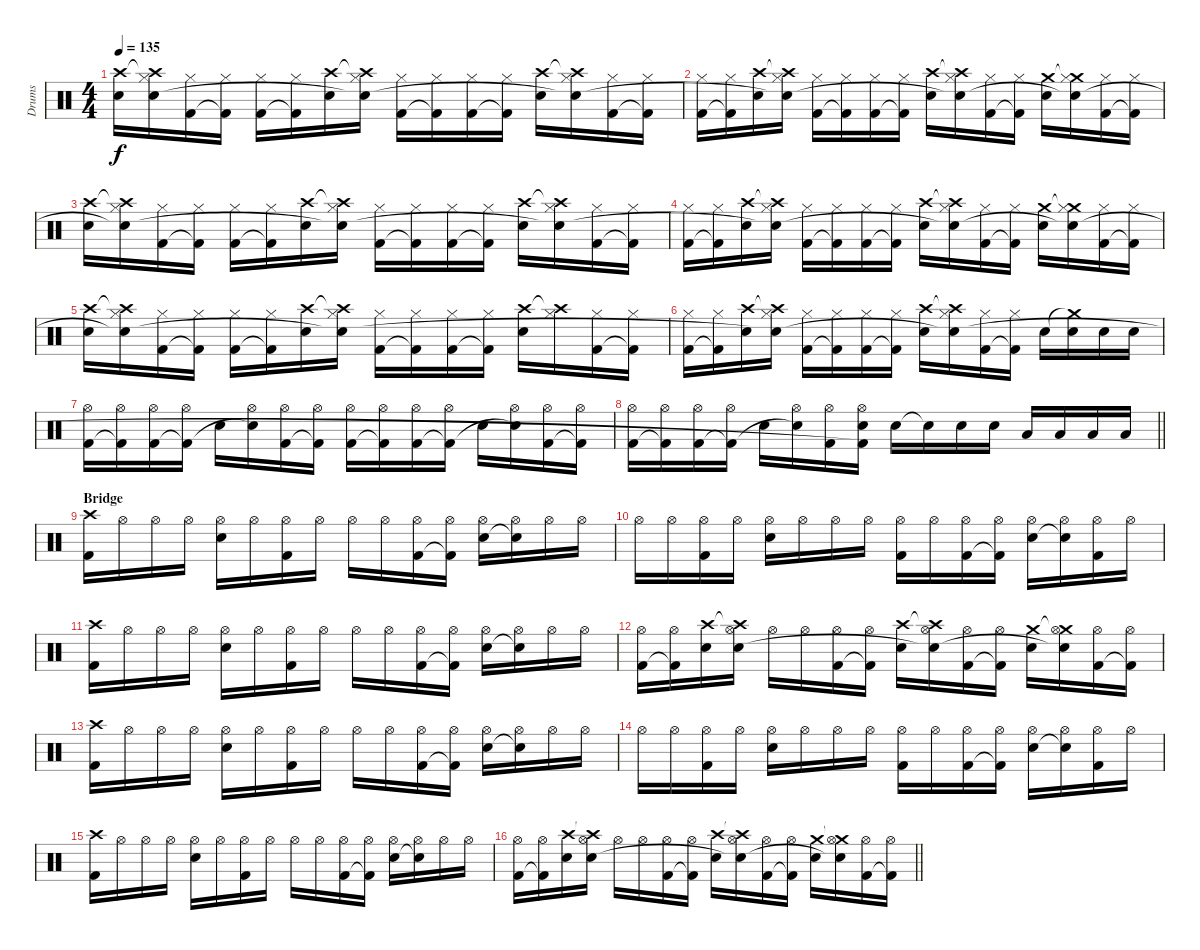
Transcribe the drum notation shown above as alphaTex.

\track ("Drums" "Drums") {instrument percussion}
\staff {score}
\articulation defaults
\ts (4 4)
\tempo 135
\clef neutral
\ks c
("Crash high (hit)" "Snare (hit) 2").16{dy f} ("Crash high (hit)"{t} "Hi-Hat (closed)" "Snare (hit) 2"{t}).16 ("Hi-Hat (closed)" "Kick (hit) 2").16 ("Hi-Hat (closed)" "Kick (hit) 2"{t}).16 ("Hi-Hat (closed)" "Kick (hit) 2").16 ("Hi-Hat (closed)" "Kick (hit) 2"{t}).16 ("Crash high (hit)" "Snare (hit) 2").16 ("Crash high (hit)"{t} "Hi-Hat (closed)" "Snare (hit) 2"{t}).16 ("Hi-Hat (closed)" "Kick (hit) 2").16 ("Hi-Hat (closed)" "Kick (hit) 2"{t}).16 ("Hi-Hat (closed)" "Kick (hit) 2").16 ("Hi-Hat (closed)" "Kick (hit) 2"{t}).16 ("Crash high (hit)" "Snare (hit) 2").16 ("Crash high (hit)"{t} "Hi-Hat (closed)" "Snare (hit) 2"{t}).16 ("Hi-Hat (closed)" "Kick (hit) 2").16 ("Hi-Hat (closed)" "Kick (hit) 2"{t}).16 |
("Hi-Hat (closed)" "Kick (hit) 2").16 ("Hi-Hat (closed)" "Kick (hit) 2"{t}).16 ("Crash high (hit)" "Snare (hit) 2").16 ("Crash high (hit)"{t} "Hi-Hat (closed)" "Snare (hit) 2"{t}).16 ("Hi-Hat (closed)" "Kick (hit) 2").16 ("Hi-Hat (closed)" "Kick (hit) 2"{t}).16 ("Hi-Hat (closed)" "Kick (hit) 2").16 ("Hi-Hat (closed)" "Kick (hit) 2"{t}).16 ("Crash high (hit)" "Snare (hit) 2").16 ("Crash high (hit)"{t} "Hi-Hat (closed)" "Snare (hit) 2"{t}).16 ("Hi-Hat (closed)" "Kick (hit) 2").16 ("Hi-Hat (closed)" "Kick (hit) 2"{t}).16 ("Crash medium (hit)" "Snare (hit) 2").16 ("Crash medium (hit)"{t} "Hi-Hat (closed)" "Snare (hit) 2"{t}).16 ("Hi-Hat (closed)" "Kick (hit) 2").16 ("Hi-Hat (closed)" "Kick (hit) 2"{t}).16 |
("Crash high (hit)" "Snare (hit) 2").16 ("Crash high (hit)"{t} "Hi-Hat (closed)" "Snare (hit) 2"{t}).16 ("Hi-Hat (closed)" "Kick (hit) 2").16 ("Hi-Hat (closed)" "Kick (hit) 2"{t}).16 ("Hi-Hat (closed)" "Kick (hit) 2").16 ("Hi-Hat (closed)" "Kick (hit) 2"{t}).16 ("Crash high (hit)" "Snare (hit) 2").16 ("Crash high (hit)"{t} "Hi-Hat (closed)" "Snare (hit) 2"{t}).16 ("Hi-Hat (closed)" "Kick (hit) 2").16 ("Hi-Hat (closed)" "Kick (hit) 2"{t}).16 ("Hi-Hat (closed)" "Kick (hit) 2").16 ("Hi-Hat (closed)" "Kick (hit) 2"{t}).16 ("Crash high (hit)" "Snare (hit) 2").16 ("Crash high (hit)"{t} "Hi-Hat (closed)" "Snare (hit) 2"{t}).16 ("Hi-Hat (closed)" "Kick (hit) 2").16 ("Hi-Hat (closed)" "Kick (hit) 2"{t}).16 |
("Hi-Hat (closed)" "Kick (hit) 2").16 ("Hi-Hat (closed)" "Kick (hit) 2"{t}).16 ("Crash high (hit)" "Snare (hit) 2").16 ("Crash high (hit)"{t} "Hi-Hat (closed)" "Snare (hit) 2"{t}).16 ("Hi-Hat (closed)" "Kick (hit) 2").16 ("Hi-Hat (closed)" "Kick (hit) 2"{t}).16 ("Hi-Hat (closed)" "Kick (hit) 2").16 ("Hi-Hat (closed)" "Kick (hit) 2"{t}).16 ("Crash high (hit)" "Snare (hit) 2").16 ("Crash high (hit)"{t} "Hi-Hat (closed)" "Snare (hit) 2"{t}).16 ("Hi-Hat (closed)" "Kick (hit) 2").16 ("Hi-Hat (closed)" "Kick (hit) 2"{t}).16 ("Crash medium (hit)" "Snare (hit) 2").16 ("Crash medium (hit)"{t} "Hi-Hat (closed)" "Snare (hit) 2"{t}).16 ("Hi-Hat (closed)" "Kick (hit) 2").16 ("Hi-Hat (closed)" "Kick (hit) 2"{t}).16 |
("Crash high (hit)" "Snare (hit) 2").16 ("Crash high (hit)"{t} "Hi-Hat (closed)" "Snare (hit) 2"{t}).16 ("Hi-Hat (closed)" "Kick (hit) 2").16 ("Hi-Hat (closed)" "Kick (hit) 2"{t}).16 ("Hi-Hat (closed)" "Kick (hit) 2").16 ("Hi-Hat (closed)" "Kick (hit) 2"{t}).16 ("Crash high (hit)" "Snare (hit) 2").16 ("Crash high (hit)"{t} "Hi-Hat (closed)" "Snare (hit) 2"{t}).16 ("Hi-Hat (closed)" "Kick (hit) 2").16 ("Hi-Hat (closed)" "Kick (hit) 2"{t}).16 ("Hi-Hat (closed)" "Kick (hit) 2").16 ("Hi-Hat (closed)" "Kick (hit) 2"{t}).16 ("Crash high (hit)" "Snare (hit) 2").16 ("Crash high (hit)"{t} "Hi-Hat (closed)").16 ("Hi-Hat (closed)" "Kick (hit) 2").16 ("Hi-Hat (closed)" "Kick (hit) 2"{t}).16 |
("Hi-Hat (closed)" "Kick (hit) 2").16 ("Hi-Hat (closed)" "Kick (hit) 2"{t}).16 ("Crash high (hit)" "Snare (hit) 2").16 ("Crash high (hit)"{t} "Hi-Hat (closed)" "Snare (hit) 2"{t}).16 ("Hi-Hat (closed)" "Kick (hit) 2").16 ("Hi-Hat (closed)" "Kick (hit) 2"{t}).16 ("Hi-Hat (closed)" "Kick (hit) 2").16 ("Hi-Hat (closed)" "Kick (hit) 2"{t}).16 ("Crash high (hit)" "Snare (hit) 2").16 ("Crash high (hit)"{t} "Hi-Hat (closed)" "Snare (hit) 2"{t}).16 ("Hi-Hat (closed)" "Kick (hit) 2").16 ("Hi-Hat (closed)" "Kick (hit) 2"{t}).16 "Snare (hit) 2".16 ("Crash medium (hit)"{t} "Snare (hit) 2").16 "Snare (hit) 2".16 "Snare (hit) 2".16 |
("Hi-Hat (open)" "Kick (hit) 2").16 ("Hi-Hat (open)" "Kick (hit) 2"{t}).16 ("Hi-Hat (open)" "Kick (hit) 2").16 ("Hi-Hat (open)" "Kick (hit) 2"{t}).16 "Snare (hit) 2".16 ("Hi-Hat (open)" "Snare (hit) 2"{t}).16 ("Hi-Hat (open)" "Kick (hit) 2").16 ("Hi-Hat (open)" "Kick (hit) 2"{t}).16 ("Hi-Hat (open)" "Kick (hit) 2").16 ("Hi-Hat (open)" "Kick (hit) 2"{t}).16 ("Hi-Hat (open)" "Kick (hit) 2").16 ("Hi-Hat (open)" "Kick (hit) 2"{t}).16 "Snare (hit) 2".16 ("Hi-Hat (open)" "Snare (hit) 2"{t}).16 ("Hi-Hat (open)" "Kick (hit) 2").16 ("Hi-Hat (open)" "Kick (hit) 2"{t}).16 |
\barLineRight lightlight
("Hi-Hat (open)" "Kick (hit) 2").16 ("Hi-Hat (open)" "Kick (hit) 2"{t}).16 ("Hi-Hat (open)" "Kick (hit) 2").16 ("Hi-Hat (open)" "Kick (hit) 2"{t}).16 "Snare (hit) 2".16 ("Hi-Hat (open)" "Snare (hit) 2"{t}).16 ("Hi-Hat (open)" "Kick (hit) 2").16 ("Hi-Hat (open)" "Snare (hit) 2" "Kick (hit) 2"{t}).16 "Snare (hit) 2".16 "Snare (hit) 2"{t}.16 "Snare (hit) 2".16 "Snare (hit) 2".16 "Low Floor Tom (hit)".16 "Low Floor Tom (hit)".16 "Low Tom (hit)".16 "Low Tom (hit)".16 |
\section ("" "Bridge")
("Crash high (hit)" "Kick (hit) 2").16 "Hi-Hat (open)".16 "Hi-Hat (open)".16 "Hi-Hat (open)".16 ("Hi-Hat (open)" "Snare (hit) 2").16 "Hi-Hat (open)".16 ("Hi-Hat (open)" "Kick (hit) 2").16 "Hi-Hat (open)".16 "Hi-Hat (open)".16 "Hi-Hat (open)".16 ("Hi-Hat (open)" "Kick (hit) 2").16 ("Hi-Hat (open)" "Kick (hit) 2"{t}).16 ("Hi-Hat (open)" "Snare (hit) 2").16 ("Hi-Hat (open)" "Snare (hit) 2"{t}).16 "Hi-Hat (open)".16 "Hi-Hat (open)".16 |
"Hi-Hat (open)".16 "Hi-Hat (open)".16 ("Hi-Hat (open)" "Kick (hit) 2").16 "Hi-Hat (open)".16 ("Hi-Hat (open)" "Snare (hit) 2").16 "Hi-Hat (open)".16 "Hi-Hat (open)".16 "Hi-Hat (open)".16 ("Hi-Hat (open)" "Kick (hit) 2").16 "Hi-Hat (open)".16 ("Hi-Hat (open)" "Kick (hit) 2").16 ("Hi-Hat (open)" "Kick (hit) 2"{t}).16 ("Hi-Hat (open)" "Snare (hit) 2").16 ("Hi-Hat (open)" "Snare (hit) 2"{t}).16 ("Hi-Hat (open)" "Kick (hit) 2").16 "Hi-Hat (open)".16 |
("Crash high (hit)" "Kick (hit) 2").16 "Hi-Hat (open)".16 "Hi-Hat (open)".16 "Hi-Hat (open)".16 ("Hi-Hat (open)" "Snare (hit) 2").16 "Hi-Hat (open)".16 ("Hi-Hat (open)" "Kick (hit) 2").16 "Hi-Hat (open)".16 "Hi-Hat (open)".16 "Hi-Hat (open)".16 ("Hi-Hat (open)" "Kick (hit) 2").16 ("Hi-Hat (open)" "Kick (hit) 2"{t}).16 ("Hi-Hat (open)" "Snare (hit) 2").16 ("Hi-Hat (open)" "Snare (hit) 2"{t}).16 "Hi-Hat (open)".16 "Hi-Hat (open)".16 |
("Hi-Hat (open)" "Kick (hit) 2").16 ("Hi-Hat (open)" "Kick (hit) 2"{t}).16 ("Crash high (hit)" "Snare (hit) 2").16 ("Crash high (hit)"{t} "Hi-Hat (open)" "Snare (hit) 2").16 "Hi-Hat (open)".16 "Hi-Hat (open)".16 ("Hi-Hat (open)" "Kick (hit) 2").16 ("Hi-Hat (open)" "Kick (hit) 2"{t}).16 ("Crash high (hit)" "Snare (hit) 2").16 ("Crash high (hit)"{t} "Hi-Hat (open)" "Snare (hit) 2"{t}).16 ("Hi-Hat (open)" "Kick (hit) 2").16 ("Hi-Hat (open)" "Kick (hit) 2"{t}).16 ("Crash medium (hit)" "Snare (hit) 2").16 ("Crash medium (hit)"{t} "Hi-Hat (open)" "Snare (hit) 2"{t}).16 ("Hi-Hat (open)" "Kick (hit) 2").16 ("Hi-Hat (open)" "Kick (hit) 2"{t}).16 |
("Crash high (hit)" "Kick (hit) 2").16 "Hi-Hat (open)".16 "Hi-Hat (open)".16 "Hi-Hat (open)".16 ("Hi-Hat (open)" "Snare (hit) 2").16 "Hi-Hat (open)".16 ("Hi-Hat (open)" "Kick (hit) 2").16 "Hi-Hat (open)".16 "Hi-Hat (open)".16 "Hi-Hat (open)".16 ("Hi-Hat (open)" "Kick (hit) 2").16 ("Hi-Hat (open)" "Kick (hit) 2"{t}).16 ("Hi-Hat (open)" "Snare (hit) 2").16 ("Hi-Hat (open)" "Snare (hit) 2"{t}).16 "Hi-Hat (open)".16 "Hi-Hat (open)".16 |
"Hi-Hat (open)".16 "Hi-Hat (open)".16 ("Hi-Hat (open)" "Kick (hit) 2").16 "Hi-Hat (open)".16 ("Hi-Hat (open)" "Snare (hit) 2").16 "Hi-Hat (open)".16 "Hi-Hat (open)".16 "Hi-Hat (open)".16 ("Hi-Hat (open)" "Kick (hit) 2").16 "Hi-Hat (open)".16 ("Hi-Hat (open)" "Kick (hit) 2").16 ("Hi-Hat (open)" "Kick (hit) 2"{t}).16 ("Hi-Hat (open)" "Snare (hit) 2").16 ("Hi-Hat (open)" "Snare (hit) 2"{t}).16 ("Hi-Hat (open)" "Kick (hit) 2").16 "Hi-Hat (open)".16 |
("Crash high (hit)" "Kick (hit) 2").16 "Hi-Hat (open)".16 "Hi-Hat (open)".16 "Hi-Hat (open)".16 ("Hi-Hat (open)" "Snare (hit) 2").16 "Hi-Hat (open)".16 ("Hi-Hat (open)" "Kick (hit) 2").16 "Hi-Hat (open)".16 "Hi-Hat (open)".16 "Hi-Hat (open)".16 ("Hi-Hat (open)" "Kick (hit) 2").16 ("Hi-Hat (open)" "Kick (hit) 2"{t}).16 ("Hi-Hat (open)" "Snare (hit) 2").16 ("Hi-Hat (open)" "Snare (hit) 2"{t}).16 "Hi-Hat (open)".16 "Hi-Hat (open)".16 |
\barLineRight lightlight
("Hi-Hat (open)" "Kick (hit) 2").16 ("Hi-Hat (open)" "Kick (hit) 2"{t}).16 ("Crash high (hit)" "Snare (hit) 2").16 ("Crash high (hit)"{t} "Hi-Hat (open)" "Snare (hit) 2").16 "Hi-Hat (open)".16 "Hi-Hat (open)".16 ("Hi-Hat (open)" "Kick (hit) 2").16 ("Hi-Hat (open)" "Kick (hit) 2"{t}).16 ("Crash high (hit)" "Snare (hit) 2").16 ("Crash high (hit)"{t} "Hi-Hat (open)" "Snare (hit) 2"{t}).16 ("Hi-Hat (open)" "Kick (hit) 2").16 ("Hi-Hat (open)" "Kick (hit) 2"{t}).16 ("Crash medium (hit)" "Snare (hit) 2").16 ("Crash medium (hit)"{t} "Hi-Hat (open)" "Snare (hit) 2"{t}).16 ("Hi-Hat (open)" "Kick (hit) 2").16 ("Hi-Hat (open)" "Kick (hit) 2"{t}).16
